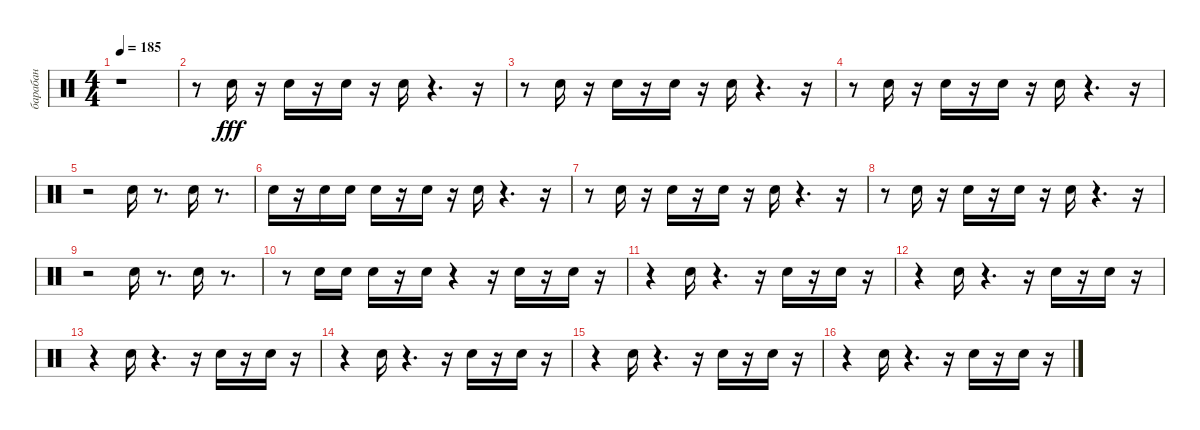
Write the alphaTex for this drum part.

\track ("барабан" "барабан") {instrument percussion}
\staff {score}
\articulation defaults
\ts (4 4)
\tempo 185
\clef neutral
\ks c
r.1{dy fff} |
r.8 "Snare (hit) 2".16 r.16 "Snare (hit) 2".16 r.16 "Snare (hit) 2".16 r.16 "Snare (hit) 2".16 r.4{d} r.16 |
r.8 "Snare (hit) 2".16 r.16 "Snare (hit) 2".16 r.16 "Snare (hit) 2".16 r.16 "Snare (hit) 2".16 r.4{d} r.16 |
r.8 "Snare (hit) 2".16 r.16 "Snare (hit) 2".16 r.16 "Snare (hit) 2".16 r.16 "Snare (hit) 2".16 r.4{d} r.16 |
r.2 "Snare (hit) 2".16 r.8{d} "Snare (hit) 2".16 r.8{d} |
"Snare (hit) 2".16 r.16 "Snare (hit) 2".16 "Snare (hit) 2".16 "Snare (hit) 2".16 r.16 "Snare (hit) 2".16 r.16 "Snare (hit) 2".16 r.4{d} r.16 |
r.8 "Snare (hit) 2".16 r.16 "Snare (hit) 2".16 r.16 "Snare (hit) 2".16 r.16 "Snare (hit) 2".16 r.4{d} r.16 |
r.8 "Snare (hit) 2".16 r.16 "Snare (hit) 2".16 r.16 "Snare (hit) 2".16 r.16 "Snare (hit) 2".16 r.4{d} r.16 |
r.2 "Snare (hit) 2".16 r.8{d} "Snare (hit) 2".16 r.8{d} |
r.8 "Snare (hit) 2".16 "Snare (hit) 2".16 "Snare (hit) 2".16 r.16 "Snare (hit) 2".16 r.4 r.16 "Snare (hit) 2".16 r.16 "Snare (hit) 2".16 r.16 |
r.4 "Snare (hit) 2".16 r.4{d} r.16 "Snare (hit) 2".16 r.16 "Snare (hit) 2".16 r.16 |
r.4 "Snare (hit) 2".16 r.4{d} r.16 "Snare (hit) 2".16 r.16 "Snare (hit) 2".16 r.16 |
r.4 "Snare (hit) 2".16 r.4{d} r.16 "Snare (hit) 2".16 r.16 "Snare (hit) 2".16 r.16 |
r.4 "Snare (hit) 2".16 r.4{d} r.16 "Snare (hit) 2".16 r.16 "Snare (hit) 2".16 r.16 |
r.4 "Snare (hit) 2".16 r.4{d} r.16 "Snare (hit) 2".16 r.16 "Snare (hit) 2".16 r.16 |
r.4 "Snare (hit) 2".16 r.4{d} r.16 "Snare (hit) 2".16 r.16 "Snare (hit) 2".16 r.16
